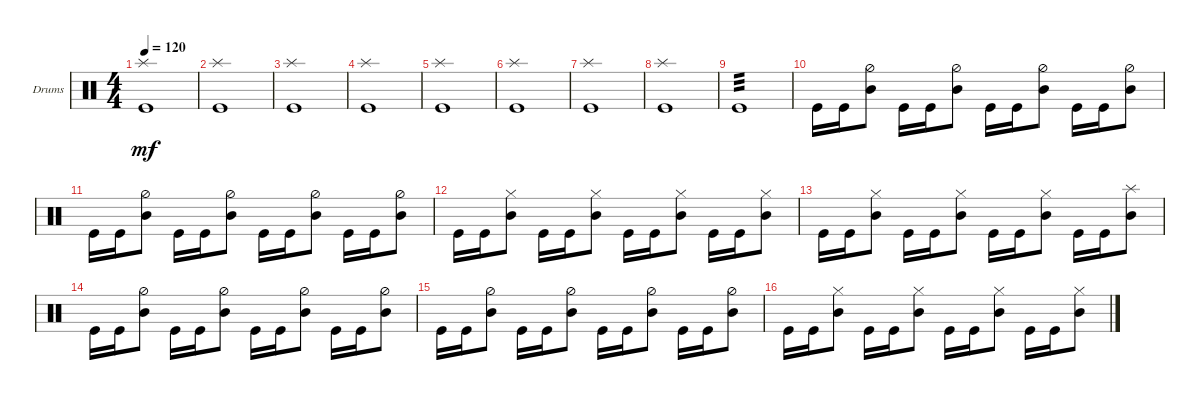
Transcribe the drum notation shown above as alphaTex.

\defaultSystemsLayout 4
\bracketExtendMode groupsimilarinstruments
\firstSystemTrackNameOrientation horizontal
\otherSystemsTrackNameOrientation horizontal
\track ("Drumkit" "Drums") {instrument percussion}
\staff {score}
\articulation defaults
\ts (4 4)
\tempo 120
\clef neutral
\ks c
("Kick (hit)" "Splash (hit)").1{dy mf} |
("Kick (hit)" "Splash (hit)").1 |
("Kick (hit)" "Splash (hit)").1 |
("Kick (hit)" "Splash (hit)").1 |
("Kick (hit)" "Splash (hit)").1 |
("Kick (hit)" "Splash (hit)").1 |
("Kick (hit)" "Splash (hit)").1 |
("Kick (hit)" "Splash (hit)").1 |
"Kick (hit)".1{tp 3} |
"Kick (hit)".16 "Kick (hit)".16 ("Mid Tom (hit)" "Hi-Hat (half)").8 "Kick (hit)".16 "Kick (hit)".16 ("Mid Tom (hit)" "Hi-Hat (half)").8 "Kick (hit)".16 "Kick (hit)".16 ("Mid Tom (hit)" "Hi-Hat (half)").8 "Kick (hit)".16 "Kick (hit)".16 ("Mid Tom (hit)" "Hi-Hat (half)").8 |
"Kick (hit)".16 "Kick (hit)".16 ("Mid Tom (hit)" "Hi-Hat (half)").8 "Kick (hit)".16 "Kick (hit)".16 ("Mid Tom (hit)" "Hi-Hat (half)").8 "Kick (hit)".16 "Kick (hit)".16 ("Mid Tom (hit)" "Hi-Hat (half)").8 "Kick (hit)".16 "Kick (hit)".16 ("Mid Tom (hit)" "Hi-Hat (half)").8 |
"Kick (hit)".16 "Kick (hit)".16 ("Mid Tom (hit)" "Hi-Hat (closed)").8 "Kick (hit)".16 "Kick (hit)".16 ("Mid Tom (hit)" "Hi-Hat (closed)").8 "Kick (hit)".16 "Kick (hit)".16 ("Mid Tom (hit)" "Hi-Hat (closed)").8 "Kick (hit)".16 "Kick (hit)".16 ("Mid Tom (hit)" "Hi-Hat (closed)").8 |
"Kick (hit)".16 "Kick (hit)".16 ("Mid Tom (hit)" "Hi-Hat (closed)").8 "Kick (hit)".16 "Kick (hit)".16 ("Mid Tom (hit)" "Hi-Hat (closed)").8 "Kick (hit)".16 "Kick (hit)".16 ("Mid Tom (hit)" "Hi-Hat (closed)").8 "Kick (hit)".16 "Kick (hit)".16 ("Mid Tom (hit)" "Splash (hit)").8 |
"Kick (hit)".16 "Kick (hit)".16 ("Mid Tom (hit)" "Hi-Hat (half)").8 "Kick (hit)".16 "Kick (hit)".16 ("Mid Tom (hit)" "Hi-Hat (half)").8 "Kick (hit)".16 "Kick (hit)".16 ("Mid Tom (hit)" "Hi-Hat (half)").8 "Kick (hit)".16 "Kick (hit)".16 ("Mid Tom (hit)" "Hi-Hat (half)").8 |
"Kick (hit)".16 "Kick (hit)".16 ("Mid Tom (hit)" "Hi-Hat (half)").8 "Kick (hit)".16 "Kick (hit)".16 ("Mid Tom (hit)" "Hi-Hat (half)").8 "Kick (hit)".16 "Kick (hit)".16 ("Mid Tom (hit)" "Hi-Hat (half)").8 "Kick (hit)".16 "Kick (hit)".16 ("Mid Tom (hit)" "Hi-Hat (half)").8 |
"Kick (hit)".16 "Kick (hit)".16 ("Mid Tom (hit)" "Hi-Hat (closed)").8 "Kick (hit)".16 "Kick (hit)".16 ("Mid Tom (hit)" "Hi-Hat (closed)").8 "Kick (hit)".16 "Kick (hit)".16 ("Mid Tom (hit)" "Hi-Hat (closed)").8 "Kick (hit)".16 "Kick (hit)".16 ("Mid Tom (hit)" "Hi-Hat (closed)").8
